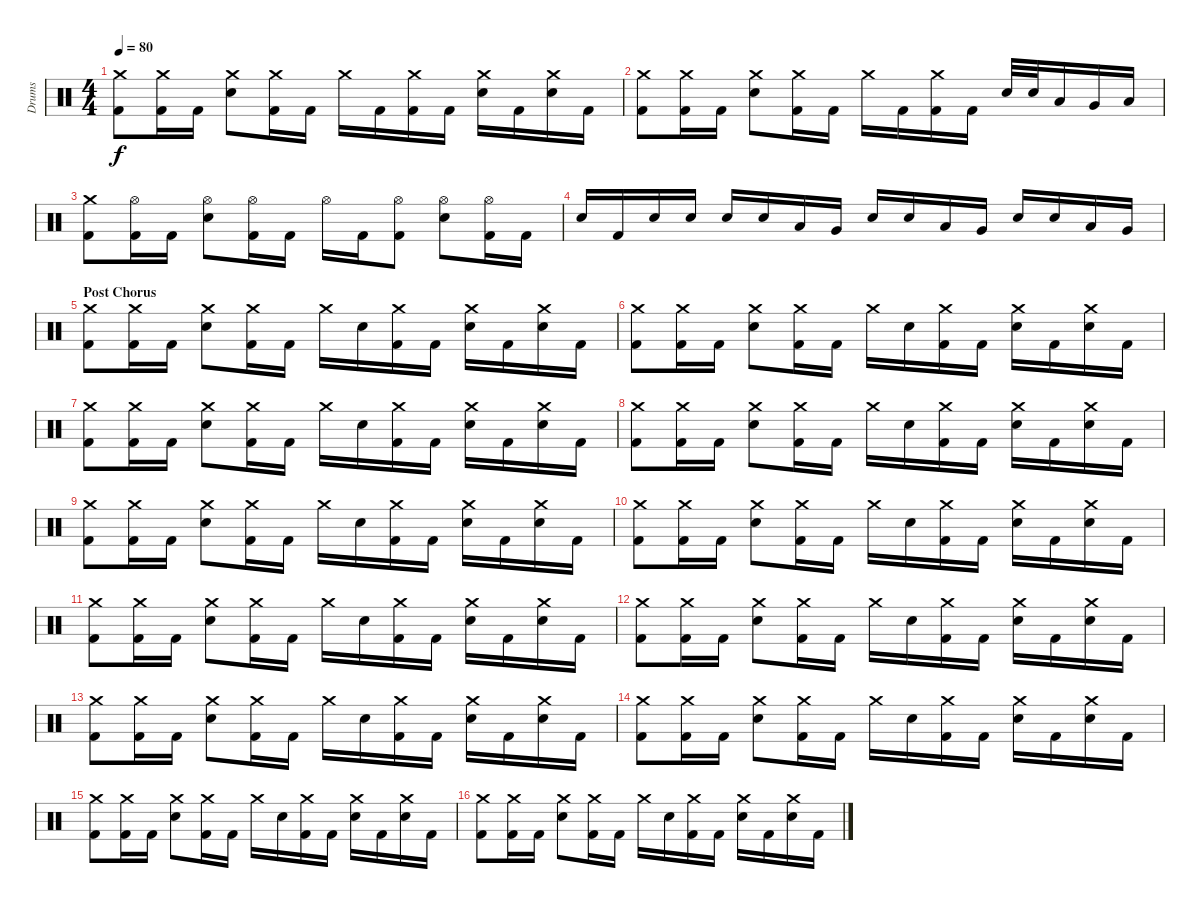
\track ("Drums" "Drums") {instrument percussion}
\staff {score}
\articulation defaults
\ts (4 4)
\tempo 80
\clef neutral
\ks c
("Crash medium (hit)" "Kick (hit) 2").8{dy f} ("Crash medium (hit)" "Kick (hit) 2").16 "Kick (hit) 2".16 ("Crash medium (hit)" "Electric Snare (hit)").8 ("Crash medium (hit)" "Kick (hit) 2").16 "Kick (hit) 2".16 "Crash medium (hit)".16 "Kick (hit) 2".16 ("Crash medium (hit)" "Kick (hit) 2").16 "Kick (hit) 2".16 ("Crash medium (hit)" "Electric Snare (hit)").16 "Kick (hit) 2".16 ("Crash medium (hit)" "Electric Snare (hit)").16 "Kick (hit) 2".16 |
("Crash medium (hit)" "Kick (hit) 2").8 ("Crash medium (hit)" "Kick (hit) 2").16 "Kick (hit) 2".16 ("Crash medium (hit)" "Electric Snare (hit)").8 ("Crash medium (hit)" "Kick (hit) 2").16 "Kick (hit) 2".16 "Crash medium (hit)".16 "Kick (hit) 2".16 ("Crash medium (hit)" "Kick (hit) 2").16 "Kick (hit) 2".16 "Electric Snare (hit)".32 "Electric Snare (hit)".32 "Low Tom (hit)".16 "Very Low Tom (hit)".16 "Low Floor Tom (hit)".16 |
("Crash medium (hit)" "Kick (hit) 2").8 ("Hi-Hat (open)" "Kick (hit) 2").16 "Kick (hit) 2".16 ("Hi-Hat (open)" "Electric Snare (hit)").8 ("Hi-Hat (open)" "Kick (hit) 2").16 "Kick (hit) 2".16 "Hi-Hat (open)".16 "Kick (hit) 2".16 ("Hi-Hat (open)" "Kick (hit) 2").8 ("Hi-Hat (open)" "Electric Snare (hit)").8 ("Hi-Hat (open)" "Kick (hit) 2").16 "Kick (hit) 2".16 |
"Electric Snare (hit)".16 "Kick (hit) 2".16 "Electric Snare (hit)".16 "Electric Snare (hit)".16 "Electric Snare (hit)".16 "Electric Snare (hit)".16 "Low Tom (hit)".16 "Very Low Tom (hit)".16 "Electric Snare (hit)".16 "Electric Snare (hit)".16 "Low Tom (hit)".16 "Very Low Tom (hit)".16 "Electric Snare (hit)".16 "Electric Snare (hit)".16 "Low Tom (hit)".16 "Very Low Tom (hit)".16 |
\section ("" "Post Chorus")
("Crash medium (hit)" "Kick (hit) 2").8 ("Crash medium (hit)" "Kick (hit) 2").16 "Kick (hit) 2".16 ("Crash medium (hit)" "Electric Snare (hit)").8 ("Crash medium (hit)" "Kick (hit) 2").16 "Kick (hit) 2".16 "Crash medium (hit)".16 "Electric Snare (hit)".16 ("Crash medium (hit)" "Kick (hit) 2").16 "Kick (hit) 2".16 ("Crash medium (hit)" "Electric Snare (hit)").16 "Kick (hit) 2".16 ("Crash medium (hit)" "Electric Snare (hit)").16 "Kick (hit) 2".16 |
("Crash medium (hit)" "Kick (hit) 2").8 ("Crash medium (hit)" "Kick (hit) 2").16 "Kick (hit) 2".16 ("Crash medium (hit)" "Electric Snare (hit)").8 ("Crash medium (hit)" "Kick (hit) 2").16 "Kick (hit) 2".16 "Crash medium (hit)".16 "Electric Snare (hit)".16 ("Crash medium (hit)" "Kick (hit) 2").16 "Kick (hit) 2".16 ("Crash medium (hit)" "Electric Snare (hit)").16 "Kick (hit) 2".16 ("Crash medium (hit)" "Electric Snare (hit)").16 "Kick (hit) 2".16 |
("Crash medium (hit)" "Kick (hit) 2").8 ("Crash medium (hit)" "Kick (hit) 2").16 "Kick (hit) 2".16 ("Crash medium (hit)" "Electric Snare (hit)").8 ("Crash medium (hit)" "Kick (hit) 2").16 "Kick (hit) 2".16 "Crash medium (hit)".16 "Electric Snare (hit)".16 ("Crash medium (hit)" "Kick (hit) 2").16 "Kick (hit) 2".16 ("Crash medium (hit)" "Electric Snare (hit)").16 "Kick (hit) 2".16 ("Crash medium (hit)" "Electric Snare (hit)").16 "Kick (hit) 2".16 |
("Crash medium (hit)" "Kick (hit) 2").8 ("Crash medium (hit)" "Kick (hit) 2").16 "Kick (hit) 2".16 ("Crash medium (hit)" "Electric Snare (hit)").8 ("Crash medium (hit)" "Kick (hit) 2").16 "Kick (hit) 2".16 "Crash medium (hit)".16 "Electric Snare (hit)".16 ("Crash medium (hit)" "Kick (hit) 2").16 "Kick (hit) 2".16 ("Crash medium (hit)" "Electric Snare (hit)").16 "Kick (hit) 2".16 ("Crash medium (hit)" "Electric Snare (hit)").16 "Kick (hit) 2".16 |
("Crash medium (hit)" "Kick (hit) 2").8 ("Crash medium (hit)" "Kick (hit) 2").16 "Kick (hit) 2".16 ("Crash medium (hit)" "Electric Snare (hit)").8 ("Crash medium (hit)" "Kick (hit) 2").16 "Kick (hit) 2".16 "Crash medium (hit)".16 "Electric Snare (hit)".16 ("Crash medium (hit)" "Kick (hit) 2").16 "Kick (hit) 2".16 ("Crash medium (hit)" "Electric Snare (hit)").16 "Kick (hit) 2".16 ("Crash medium (hit)" "Electric Snare (hit)").16 "Kick (hit) 2".16 |
("Crash medium (hit)" "Kick (hit) 2").8 ("Crash medium (hit)" "Kick (hit) 2").16 "Kick (hit) 2".16 ("Crash medium (hit)" "Electric Snare (hit)").8 ("Crash medium (hit)" "Kick (hit) 2").16 "Kick (hit) 2".16 "Crash medium (hit)".16 "Electric Snare (hit)".16 ("Crash medium (hit)" "Kick (hit) 2").16 "Kick (hit) 2".16 ("Crash medium (hit)" "Electric Snare (hit)").16 "Kick (hit) 2".16 ("Crash medium (hit)" "Electric Snare (hit)").16 "Kick (hit) 2".16 |
("Crash medium (hit)" "Kick (hit) 2").8 ("Crash medium (hit)" "Kick (hit) 2").16 "Kick (hit) 2".16 ("Crash medium (hit)" "Electric Snare (hit)").8 ("Crash medium (hit)" "Kick (hit) 2").16 "Kick (hit) 2".16 "Crash medium (hit)".16 "Electric Snare (hit)".16 ("Crash medium (hit)" "Kick (hit) 2").16 "Kick (hit) 2".16 ("Crash medium (hit)" "Electric Snare (hit)").16 "Kick (hit) 2".16 ("Crash medium (hit)" "Electric Snare (hit)").16 "Kick (hit) 2".16 |
("Crash medium (hit)" "Kick (hit) 2").8 ("Crash medium (hit)" "Kick (hit) 2").16 "Kick (hit) 2".16 ("Crash medium (hit)" "Electric Snare (hit)").8 ("Crash medium (hit)" "Kick (hit) 2").16 "Kick (hit) 2".16 "Crash medium (hit)".16 "Electric Snare (hit)".16 ("Crash medium (hit)" "Kick (hit) 2").16 "Kick (hit) 2".16 ("Crash medium (hit)" "Electric Snare (hit)").16 "Kick (hit) 2".16 ("Crash medium (hit)" "Electric Snare (hit)").16 "Kick (hit) 2".16 |
("Crash medium (hit)" "Kick (hit) 2").8 ("Crash medium (hit)" "Kick (hit) 2").16 "Kick (hit) 2".16 ("Crash medium (hit)" "Electric Snare (hit)").8 ("Crash medium (hit)" "Kick (hit) 2").16 "Kick (hit) 2".16 "Crash medium (hit)".16 "Electric Snare (hit)".16 ("Crash medium (hit)" "Kick (hit) 2").16 "Kick (hit) 2".16 ("Crash medium (hit)" "Electric Snare (hit)").16 "Kick (hit) 2".16 ("Crash medium (hit)" "Electric Snare (hit)").16 "Kick (hit) 2".16 |
("Crash medium (hit)" "Kick (hit) 2").8 ("Crash medium (hit)" "Kick (hit) 2").16 "Kick (hit) 2".16 ("Crash medium (hit)" "Electric Snare (hit)").8 ("Crash medium (hit)" "Kick (hit) 2").16 "Kick (hit) 2".16 "Crash medium (hit)".16 "Electric Snare (hit)".16 ("Crash medium (hit)" "Kick (hit) 2").16 "Kick (hit) 2".16 ("Crash medium (hit)" "Electric Snare (hit)").16 "Kick (hit) 2".16 ("Crash medium (hit)" "Electric Snare (hit)").16 "Kick (hit) 2".16 |
("Crash medium (hit)" "Kick (hit) 2").8 ("Crash medium (hit)" "Kick (hit) 2").16 "Kick (hit) 2".16 ("Crash medium (hit)" "Electric Snare (hit)").8 ("Crash medium (hit)" "Kick (hit) 2").16 "Kick (hit) 2".16 "Crash medium (hit)".16 "Electric Snare (hit)".16 ("Crash medium (hit)" "Kick (hit) 2").16 "Kick (hit) 2".16 ("Crash medium (hit)" "Electric Snare (hit)").16 "Kick (hit) 2".16 ("Crash medium (hit)" "Electric Snare (hit)").16 "Kick (hit) 2".16 |
("Crash medium (hit)" "Kick (hit) 2").8 ("Crash medium (hit)" "Kick (hit) 2").16 "Kick (hit) 2".16 ("Crash medium (hit)" "Electric Snare (hit)").8 ("Crash medium (hit)" "Kick (hit) 2").16 "Kick (hit) 2".16 "Crash medium (hit)".16 "Electric Snare (hit)".16 ("Crash medium (hit)" "Kick (hit) 2").16 "Kick (hit) 2".16 ("Crash medium (hit)" "Electric Snare (hit)").16 "Kick (hit) 2".16 ("Crash medium (hit)" "Electric Snare (hit)").16 "Kick (hit) 2".16
